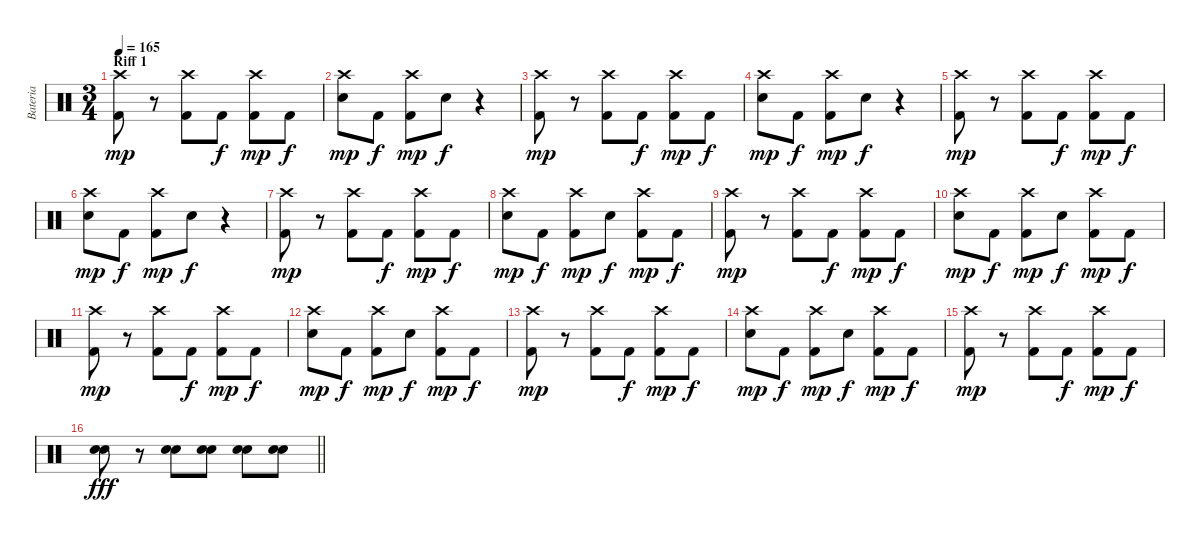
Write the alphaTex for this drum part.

\track ("Bateria" "Bateria") {instrument percussion}
\staff {score}
\articulation defaults
\ts (3 4)
\section ("" "Riff 1")
\tempo 165
\clef neutral
\ks c
("Crash high (hit)" "Kick (hit) 2").8{dy mp} r.8 ("Crash high (hit)" "Kick (hit) 2").8 "Kick (hit) 2".8{dy f} ("Crash high (hit)" "Kick (hit) 2").8{dy mp} "Kick (hit) 2".8{dy f} |
("Crash high (hit)" "Electric Snare (hit)").8{dy mp} "Kick (hit) 2".8{dy f} ("Crash high (hit)" "Kick (hit) 2").8{dy mp} "Electric Snare (hit)".8{dy f} r.4 |
("Crash high (hit)" "Kick (hit) 2").8{dy mp} r.8 ("Crash high (hit)" "Kick (hit) 2").8 "Kick (hit) 2".8{dy f} ("Crash high (hit)" "Kick (hit) 2").8{dy mp} "Kick (hit) 2".8{dy f} |
("Crash high (hit)" "Electric Snare (hit)").8{dy mp} "Kick (hit) 2".8{dy f} ("Crash high (hit)" "Kick (hit) 2").8{dy mp} "Electric Snare (hit)".8{dy f} r.4 |
("Crash high (hit)" "Kick (hit) 2").8{dy mp} r.8 ("Crash high (hit)" "Kick (hit) 2").8 "Kick (hit) 2".8{dy f} ("Crash high (hit)" "Kick (hit) 2").8{dy mp} "Kick (hit) 2".8{dy f} |
("Crash high (hit)" "Electric Snare (hit)").8{dy mp} "Kick (hit) 2".8{dy f} ("Crash high (hit)" "Kick (hit) 2").8{dy mp} "Electric Snare (hit)".8{dy f} r.4 |
("Crash high (hit)" "Kick (hit) 2").8{dy mp} r.8 ("Crash high (hit)" "Kick (hit) 2").8 "Kick (hit) 2".8{dy f} ("Crash high (hit)" "Kick (hit) 2").8{dy mp} "Kick (hit) 2".8{dy f} |
("Crash high (hit)" "Electric Snare (hit)").8{dy mp} "Kick (hit) 2".8{dy f} ("Crash high (hit)" "Kick (hit) 2").8{dy mp} "Electric Snare (hit)".8{dy f} ("Crash high (hit)" "Kick (hit) 2").8{dy mp} "Kick (hit) 2".8{dy f} |
("Crash high (hit)" "Kick (hit) 2").8{dy mp} r.8 ("Crash high (hit)" "Kick (hit) 2").8 "Kick (hit) 2".8{dy f} ("Crash high (hit)" "Kick (hit) 2").8{dy mp} "Kick (hit) 2".8{dy f} |
("Crash high (hit)" "Electric Snare (hit)").8{dy mp} "Kick (hit) 2".8{dy f} ("Crash high (hit)" "Kick (hit) 2").8{dy mp} "Electric Snare (hit)".8{dy f} ("Crash high (hit)" "Kick (hit) 2").8{dy mp} "Kick (hit) 2".8{dy f} |
("Crash high (hit)" "Kick (hit) 2").8{dy mp} r.8 ("Crash high (hit)" "Kick (hit) 2").8 "Kick (hit) 2".8{dy f} ("Crash high (hit)" "Kick (hit) 2").8{dy mp} "Kick (hit) 2".8{dy f} |
("Crash high (hit)" "Electric Snare (hit)").8{dy mp} "Kick (hit) 2".8{dy f} ("Crash high (hit)" "Kick (hit) 2").8{dy mp} "Electric Snare (hit)".8{dy f} ("Crash high (hit)" "Kick (hit) 2").8{dy mp} "Kick (hit) 2".8{dy f} |
("Crash high (hit)" "Kick (hit) 2").8{dy mp} r.8 ("Crash high (hit)" "Kick (hit) 2").8 "Kick (hit) 2".8{dy f} ("Crash high (hit)" "Kick (hit) 2").8{dy mp} "Kick (hit) 2".8{dy f} |
("Crash high (hit)" "Electric Snare (hit)").8{dy mp} "Kick (hit) 2".8{dy f} ("Crash high (hit)" "Kick (hit) 2").8{dy mp} "Electric Snare (hit)".8{dy f} ("Crash high (hit)" "Kick (hit) 2").8{dy mp} "Kick (hit) 2".8{dy f} |
("Crash high (hit)" "Kick (hit) 2").8{dy mp} r.8 ("Crash high (hit)" "Kick (hit) 2").8 "Kick (hit) 2".8{dy f} ("Crash high (hit)" "Kick (hit) 2").8{dy mp} "Kick (hit) 2".8{dy f} |
\barLineRight lightlight
("Electric Snare (hit)" "Electric Snare (hit)").8{dy fff} r.8 ("Electric Snare (hit)" "Electric Snare (hit)").8 ("Electric Snare (hit)" "Electric Snare (hit)").8 ("Electric Snare (hit)" "Electric Snare (hit)").8 ("Electric Snare (hit)" "Electric Snare (hit)").8
